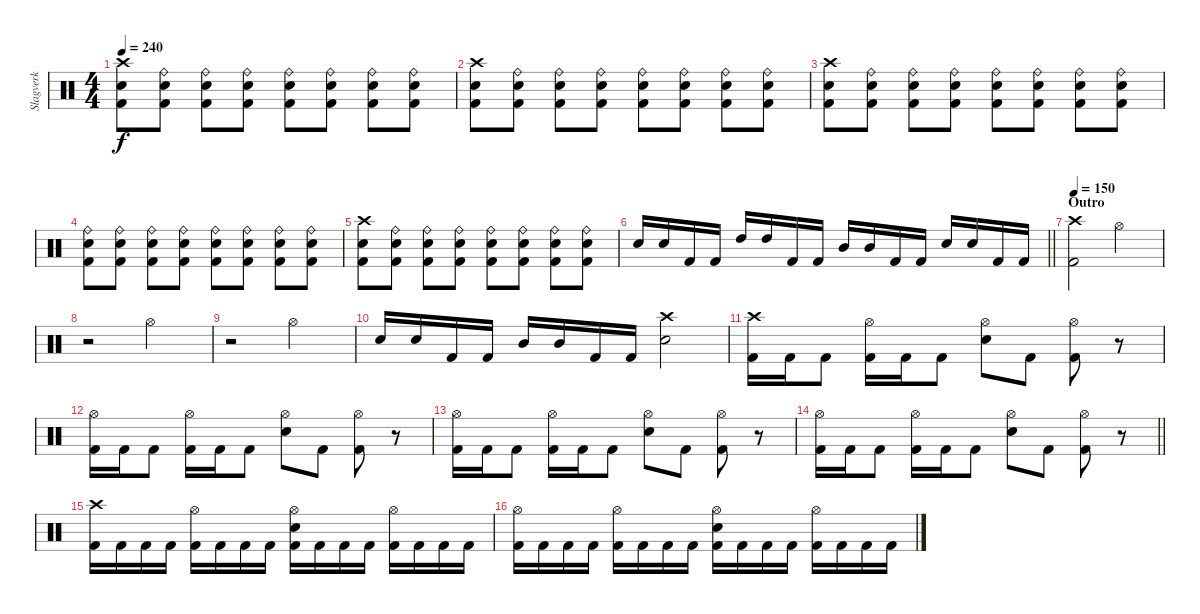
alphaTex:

\track ("Slagverk" "Slagverk") {instrument percussion}
\staff {score}
\articulation defaults
\ts (4 4)
\tempo 240
\clef neutral
\ks c
("Crash high (hit)" "Electric Snare (hit)" "Kick (hit) 2").8{dy f} ("Ride (bell)" "Electric Snare (hit)" "Kick (hit) 2").8 ("Ride (bell)" "Electric Snare (hit)" "Kick (hit) 2").8 ("Ride (bell)" "Electric Snare (hit)" "Kick (hit) 2").8 ("Ride (bell)" "Electric Snare (hit)" "Kick (hit) 2").8 ("Ride (bell)" "Electric Snare (hit)" "Kick (hit) 2").8 ("Ride (bell)" "Electric Snare (hit)" "Kick (hit) 2").8 ("Ride (bell)" "Electric Snare (hit)" "Kick (hit) 2").8 |
("Crash high (hit)" "Electric Snare (hit)" "Kick (hit) 2").8 ("Ride (bell)" "Electric Snare (hit)" "Kick (hit) 2").8 ("Ride (bell)" "Electric Snare (hit)" "Kick (hit) 2").8 ("Ride (bell)" "Electric Snare (hit)" "Kick (hit) 2").8 ("Ride (bell)" "Electric Snare (hit)" "Kick (hit) 2").8 ("Ride (bell)" "Electric Snare (hit)" "Kick (hit) 2").8 ("Ride (bell)" "Electric Snare (hit)" "Kick (hit) 2").8 ("Ride (bell)" "Electric Snare (hit)" "Kick (hit) 2").8 |
("Crash high (hit)" "Electric Snare (hit)" "Kick (hit) 2").8 ("Ride (bell)" "Electric Snare (hit)" "Kick (hit) 2").8 ("Ride (bell)" "Electric Snare (hit)" "Kick (hit) 2").8 ("Ride (bell)" "Electric Snare (hit)" "Kick (hit) 2").8 ("Ride (bell)" "Electric Snare (hit)" "Kick (hit) 2").8 ("Ride (bell)" "Electric Snare (hit)" "Kick (hit) 2").8 ("Ride (bell)" "Electric Snare (hit)" "Kick (hit) 2").8 ("Ride (bell)" "Electric Snare (hit)" "Kick (hit) 2").8 |
("Ride (bell)" "Electric Snare (hit)" "Kick (hit) 2").8 ("Ride (bell)" "Electric Snare (hit)" "Kick (hit) 2").8 ("Ride (bell)" "Electric Snare (hit)" "Kick (hit) 2").8 ("Ride (bell)" "Electric Snare (hit)" "Kick (hit) 2").8 ("Ride (bell)" "Electric Snare (hit)" "Kick (hit) 2").8 ("Ride (bell)" "Electric Snare (hit)" "Kick (hit) 2").8 ("Ride (bell)" "Electric Snare (hit)" "Kick (hit) 2").8 ("Ride (bell)" "Electric Snare (hit)" "Kick (hit) 2").8 |
("Crash high (hit)" "Electric Snare (hit)" "Kick (hit) 2").8 ("Ride (bell)" "Electric Snare (hit)" "Kick (hit) 2").8 ("Ride (bell)" "Electric Snare (hit)" "Kick (hit) 2").8 ("Ride (bell)" "Electric Snare (hit)" "Kick (hit) 2").8 ("Ride (bell)" "Electric Snare (hit)" "Kick (hit) 2").8 ("Ride (bell)" "Electric Snare (hit)" "Kick (hit) 2").8 ("Ride (bell)" "Electric Snare (hit)" "Kick (hit) 2").8 ("Ride (bell)" "Electric Snare (hit)" "Kick (hit) 2").8 |
\barLineRight lightlight "Electric Snare (hit)".16 "Electric Snare (hit)".16 "Kick (hit) 2".16 "Kick (hit) 2".16 "High Tom (hit)".16 "High Tom (hit)".16 "Kick (hit) 2".16 "Kick (hit) 2".16 "Mid Tom (hit)".16 "Mid Tom (hit)".16 "Kick (hit) 2".16 "Kick (hit) 2".16 "Electric Snare (hit)".16 "Electric Snare (hit)".16 "Kick (hit) 2".16 "Kick (hit) 2".16
|
\section ("" "Outro")
\tempo 150
("Crash high (hit)" "Kick (hit) 2").2 "Hi-Hat (open)".2 |
r.2 "Hi-Hat (open)".2 |
r.2 "Hi-Hat (open)".2 |
"Electric Snare (hit)".16 "Electric Snare (hit)".16 "Kick (hit) 2".16 "Kick (hit) 2".16 "Mid Tom (hit)".16 "Mid Tom (hit)".16 "Kick (hit) 2".16 "Kick (hit) 2".16 ("Crash high (hit)" "Electric Snare (hit)").2 |
("Crash high (hit)" "Kick (hit) 2").16 "Kick (hit) 2".16 "Kick (hit) 2".8 ("Hi-Hat (open)" "Kick (hit) 2").16 "Kick (hit) 2".16 "Kick (hit) 2".8 ("Hi-Hat (open)" "Electric Snare (hit)").8 "Kick (hit) 2".8 ("Hi-Hat (open)" "Kick (hit) 2").8 r.8 |
("Hi-Hat (open)" "Kick (hit) 2").16 "Kick (hit) 2".16 "Kick (hit) 2".8 ("Hi-Hat (open)" "Kick (hit) 2").16 "Kick (hit) 2".16 "Kick (hit) 2".8 ("Hi-Hat (open)" "Electric Snare (hit)").8 "Kick (hit) 2".8 ("Hi-Hat (open)" "Kick (hit) 2").8 r.8 |
("Hi-Hat (open)" "Kick (hit) 2").16 "Kick (hit) 2".16 "Kick (hit) 2".8 ("Hi-Hat (open)" "Kick (hit) 2").16 "Kick (hit) 2".16 "Kick (hit) 2".8 ("Hi-Hat (open)" "Electric Snare (hit)").8 "Kick (hit) 2".8 ("Hi-Hat (open)" "Kick (hit) 2").8 r.8 |
\barLineRight lightlight
("Hi-Hat (open)" "Kick (hit) 2").16 "Kick (hit) 2".16 "Kick (hit) 2".8 ("Hi-Hat (open)" "Kick (hit) 2").16 "Kick (hit) 2".16 "Kick (hit) 2".8 ("Hi-Hat (open)" "Electric Snare (hit)").8 "Kick (hit) 2".8 ("Hi-Hat (open)" "Kick (hit) 2").8 r.8 |
\section ("" "")
("Crash high (hit)" "Kick (hit) 2").16 "Kick (hit) 2".16 "Kick (hit) 2".16 "Kick (hit) 2".16 ("Hi-Hat (open)" "Kick (hit) 2").16 "Kick (hit) 2".16 "Kick (hit) 2".16 "Kick (hit) 2".16 ("Hi-Hat (open)" "Electric Snare (hit)" "Kick (hit) 2").16 "Kick (hit) 2".16 "Kick (hit) 2".16 "Kick (hit) 2".16 ("Hi-Hat (open)" "Kick (hit) 2").16 "Kick (hit) 2".16 "Kick (hit) 2".16 "Kick (hit) 2".16 |
("Hi-Hat (open)" "Kick (hit) 2").16 "Kick (hit) 2".16 "Kick (hit) 2".16 "Kick (hit) 2".16 ("Hi-Hat (open)" "Kick (hit) 2").16 "Kick (hit) 2".16 "Kick (hit) 2".16 "Kick (hit) 2".16 ("Hi-Hat (open)" "Electric Snare (hit)" "Kick (hit) 2").16 "Kick (hit) 2".16 "Kick (hit) 2".16 "Kick (hit) 2".16 ("Hi-Hat (open)" "Kick (hit) 2").16 "Kick (hit) 2".16 "Kick (hit) 2".16 "Kick (hit) 2".16
